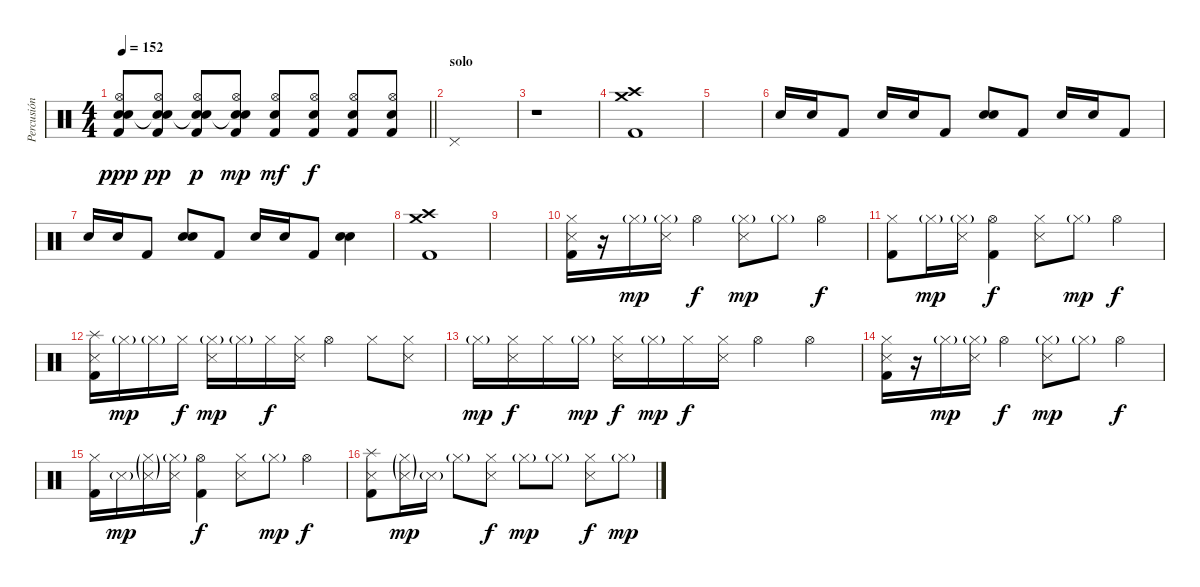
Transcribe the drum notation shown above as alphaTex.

\track ("Percusión" "Percusión") {instrument percussion}
\staff {score}
\articulation defaults
\ts (4 4)
\tempo 152
\clef neutral
\barLineRight lightlight
\ks c
("Snare (hit)"{t} "Hi-Hat (open)" "Snare (hit) 2" "Kick (hit) 2").8{dy ppp} ("Snare (hit)"{t} "Hi-Hat (open)" "Snare (hit) 2" "Kick (hit) 2").8{dy pp} ("Snare (hit)"{t} "Hi-Hat (open)" "Snare (hit) 2" "Kick (hit) 2").8{dy p} ("Snare (hit)"{t} "Hi-Hat (open)" "Snare (hit) 2" "Kick (hit) 2").8{dy mp} ("Hi-Hat (open)" "Snare (hit) 2" "Kick (hit) 2").8{dy mf} ("Hi-Hat (open)" "Snare (hit) 2" "Kick (hit) 2").8{dy f} ("Hi-Hat (open)" "Snare (hit) 2" "Kick (hit) 2").8 ("Hi-Hat (open)" "Snare (hit) 2" "Kick (hit) 2").8 |
\section ("" "solo")
"Pedal Hi-Hat (hit)".1 |
r.1 |
("Crash medium (hit)" "Crash high (hit)" "Kick (hit) 2").1 |
|
"Snare (hit) 2".16 "Snare (hit) 2".16 "Kick (hit) 2".8 "Snare (hit) 2".16 "Snare (hit) 2".16 "Kick (hit) 2".8 ("Snare (hit) 2" "Snare (hit) 2").8 "Kick (hit) 2".8 "Snare (hit) 2".16 "Snare (hit) 2".16 "Kick (hit) 2".8 |
"Snare (hit) 2".16 "Snare (hit) 2".16 "Kick (hit) 2".8 ("Snare (hit) 2" "Snare (hit) 2").8 "Kick (hit) 2".8 "Snare (hit) 2".16 "Snare (hit) 2".16 "Kick (hit) 2".8 ("Snare (hit) 2" "Snare (hit) 2").4 |
("Crash medium (hit)" "Crash high (hit)" "Kick (hit) 2").1 |
|
("Hi-Hat (closed)" "Snare (side stick) 3" "Kick (hit) 2").16 r.16 "Hi-Hat (closed)"{g}.16{dy mp} ("Hi-Hat (closed)"{g} "Snare (side stick) 3").16 "Hi-Hat (open)".4{dy f} ("Hi-Hat (closed)"{g} "Snare (side stick) 3").8{dy mp} "Hi-Hat (closed)"{g}.8 "Hi-Hat (open)".4{dy f} |
("Hi-Hat (closed)" "Kick (hit) 2").8 "Hi-Hat (closed)"{g}.16{dy mp} ("Hi-Hat (closed)"{g} "Snare (side stick) 3").16 ("Hi-Hat (open)" "Kick (hit) 2").4{dy f} ("Hi-Hat (closed)" "Snare (side stick) 3").8 "Hi-Hat (closed)"{g}.8{dy mp} "Hi-Hat (open)".4{dy f} |
("Splash (hit)" "Snare (side stick) 3" "Kick (hit) 2").16 "Hi-Hat (closed)"{g}.16{dy mp} "Hi-Hat (closed)"{g}.16 "Hi-Hat (closed)".16{dy f} ("Hi-Hat (closed)"{g} "Snare (side stick) 3").16{dy mp} "Hi-Hat (closed)"{g}.16 "Hi-Hat (closed)".16{dy f} ("Hi-Hat (closed)" "Snare (side stick) 3").16 "Hi-Hat (open)".4 "Hi-Hat (closed)".8 ("Hi-Hat (closed)" "Snare (side stick) 3").8 |
"Hi-Hat (closed)"{g}.16{dy mp} ("Hi-Hat (closed)" "Snare (side stick) 3").16{dy f} "Hi-Hat (closed)".16 "Hi-Hat (closed)"{g}.16{dy mp} ("Hi-Hat (closed)" "Snare (side stick) 3").16{dy f} "Hi-Hat (closed)"{g}.16{dy mp} "Hi-Hat (closed)".16{dy f} ("Hi-Hat (closed)" "Snare (side stick) 3").16 "Hi-Hat (open)".4 "Hi-Hat (open)".4 |
("Hi-Hat (closed)" "Snare (side stick) 3" "Kick (hit) 2").16 r.16 "Hi-Hat (closed)"{g}.16{dy mp} ("Hi-Hat (closed)"{g} "Snare (side stick) 3").16 "Hi-Hat (open)".4{dy f} ("Hi-Hat (closed)"{g} "Snare (side stick) 3").8{dy mp} "Hi-Hat (closed)"{g}.8 "Hi-Hat (open)".4{dy f} |
("Hi-Hat (closed)" "Kick (hit) 2").16 "Snare (side stick) 3"{g}.16{dy mp} ("Hi-Hat (closed)"{g} "Snare (side stick) 3"{g}).16 ("Hi-Hat (closed)"{g} "Snare (side stick) 3").16 ("Hi-Hat (open)" "Kick (hit) 2").4{dy f} ("Hi-Hat (closed)" "Snare (side stick) 3").8 "Hi-Hat (closed)"{g}.8{dy mp} "Hi-Hat (open)".4{dy f} |
("Splash (hit)" "Snare (side stick) 3" "Kick (hit) 2").8 ("Hi-Hat (closed)"{g} "Snare (side stick) 3"{g}).16{dy mp} "Snare (side stick) 3"{g}.16 "Hi-Hat (closed)"{g}.8 ("Hi-Hat (closed)" "Snare (side stick) 3").8{dy f} "Hi-Hat (closed)"{g}.8{dy mp} "Hi-Hat (closed)"{g}.8 ("Hi-Hat (closed)" "Snare (side stick) 3").8{dy f} "Hi-Hat (closed)"{g}.8{dy mp}
